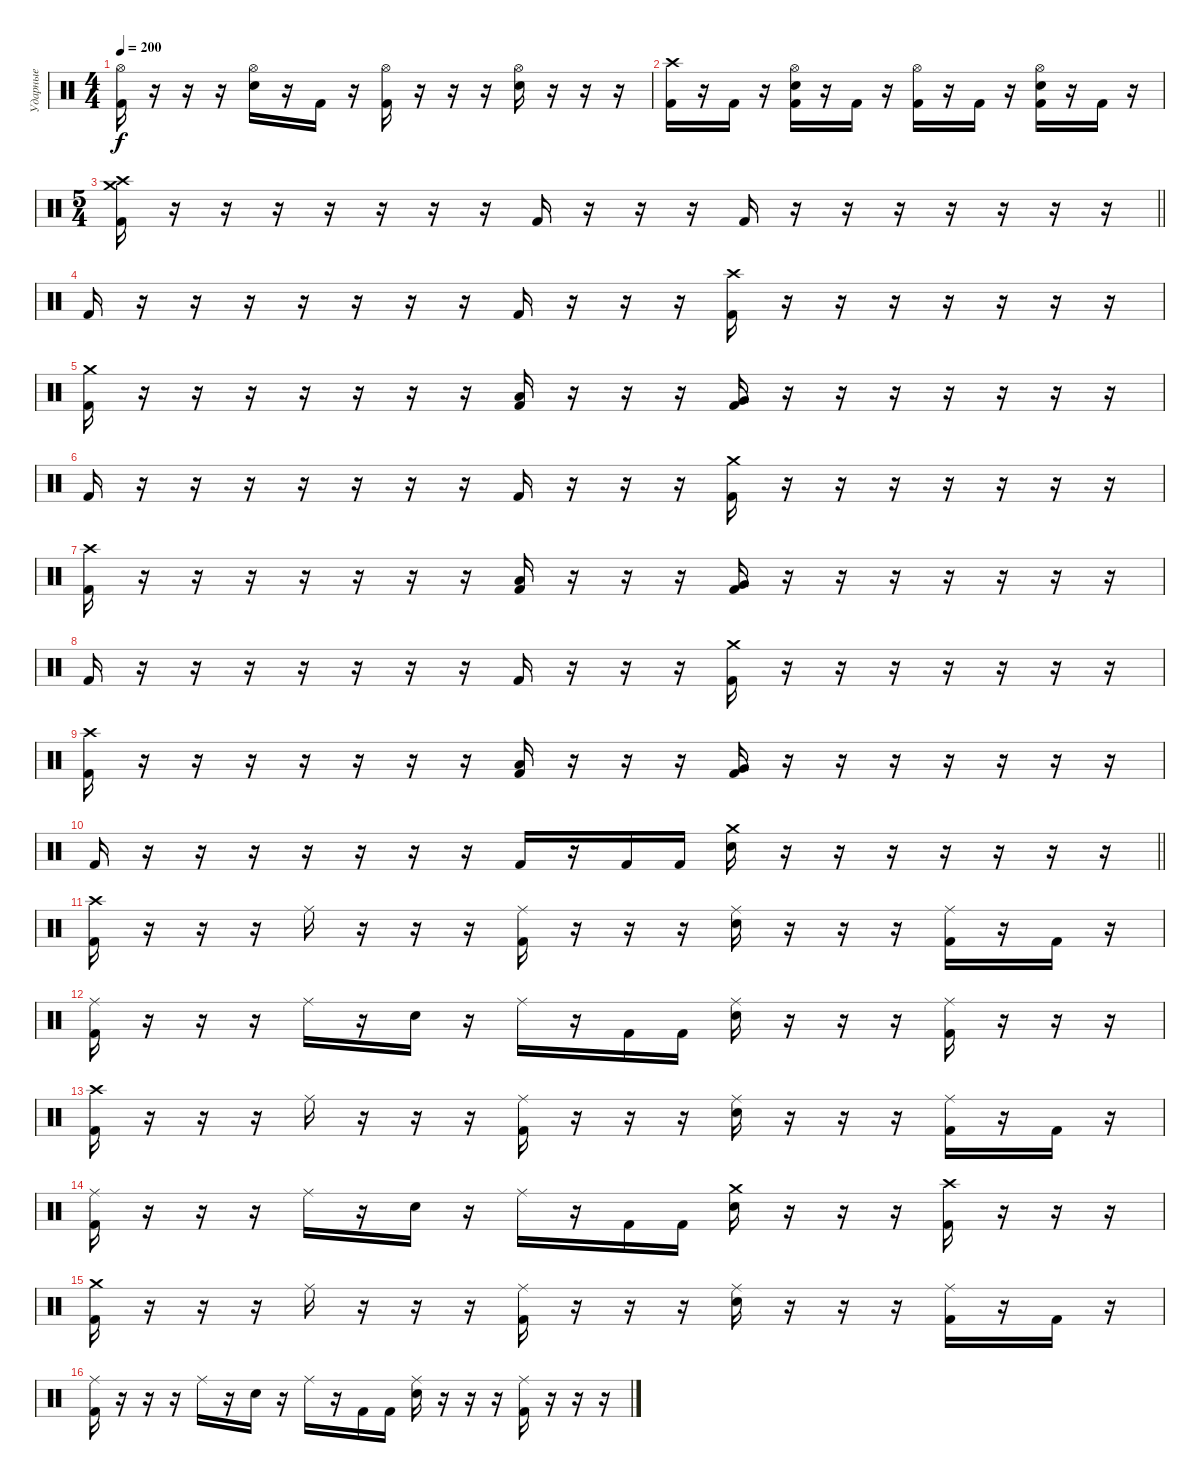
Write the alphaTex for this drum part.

\track ("Ударные" "Ударные") {instrument percussion}
\staff {score}
\articulation defaults
\ts (4 4)
\tempo 200
\clef neutral
\ks c
("Hi-Hat (open)" "Kick (hit) 2").16{dy f} r.16 r.16 r.16 ("Hi-Hat (open)" "Electric Snare (hit)").16 r.16 "Kick (hit) 2".16 r.16 ("Hi-Hat (open)" "Kick (hit) 2").16 r.16 r.16 r.16 ("Hi-Hat (open)" "Electric Snare (hit)").16 r.16 r.16 r.16 |
("Crash high (hit)" "Kick (hit) 2").16 r.16 "Kick (hit) 2".16 r.16 ("Hi-Hat (open)" "Electric Snare (hit)" "Kick (hit) 2").16 r.16 "Kick (hit) 2".16 r.16 ("Hi-Hat (open)" "Kick (hit) 2").16 r.16 "Kick (hit) 2".16 r.16 ("Hi-Hat (open)" "Electric Snare (hit)" "Kick (hit) 2").16 r.16 "Kick (hit) 2".16 r.16 |
\ts (5 4)
\barLineRight lightlight
("Crash medium (hit)" "Crash high (hit)" "Kick (hit) 2").16 r.16 r.16 r.16 r.16 r.16 r.16 r.16 "Kick (hit) 2".16 r.16 r.16 r.16 "Kick (hit) 2".16 r.16 r.16 r.16 r.16 r.16 r.16 r.16 |
"Kick (hit) 2".16 r.16 r.16 r.16 r.16 r.16 r.16 r.16 "Kick (hit) 2".16 r.16 r.16 r.16 ("Crash high (hit)" "Kick (hit) 2").16 r.16 r.16 r.16 r.16 r.16 r.16 r.16 |
("Crash medium (hit)" "Kick (hit) 2").16 r.16 r.16 r.16 r.16 r.16 r.16 r.16 ("Low Tom (hit)" "Kick (hit) 2").16 r.16 r.16 r.16 ("Very Low Tom (hit)" "Kick (hit) 2").16 r.16 r.16 r.16 r.16 r.16 r.16 r.16 |
"Kick (hit) 2".16 r.16 r.16 r.16 r.16 r.16 r.16 r.16 "Kick (hit) 2".16 r.16 r.16 r.16 ("Crash medium (hit)" "Kick (hit) 2").16 r.16 r.16 r.16 r.16 r.16 r.16 r.16 |
("Crash high (hit)" "Kick (hit) 2").16 r.16 r.16 r.16 r.16 r.16 r.16 r.16 ("Low Tom (hit)" "Kick (hit) 2").16 r.16 r.16 r.16 ("Very Low Tom (hit)" "Kick (hit) 2").16 r.16 r.16 r.16 r.16 r.16 r.16 r.16 |
"Kick (hit) 2".16 r.16 r.16 r.16 r.16 r.16 r.16 r.16 "Kick (hit) 2".16 r.16 r.16 r.16 ("Crash medium (hit)" "Kick (hit) 2").16 r.16 r.16 r.16 r.16 r.16 r.16 r.16 |
("Crash high (hit)" "Kick (hit) 2").16 r.16 r.16 r.16 r.16 r.16 r.16 r.16 ("Low Tom (hit)" "Kick (hit) 2").16 r.16 r.16 r.16 ("Very Low Tom (hit)" "Kick (hit) 2").16 r.16 r.16 r.16 r.16 r.16 r.16 r.16 |
\barLineRight lightlight "Kick (hit) 2".16
r.16 r.16 r.16 r.16 r.16 r.16 r.16 "Kick (hit) 2".16 r.16 "Kick (hit) 2".16 "Kick (hit) 2".16 ("Crash medium (hit)" "Electric Snare (hit)").16 r.16 r.16 r.16 r.16 r.16 r.16 r.16 |
\section ("" "")
("Crash high (hit)" "Kick (hit) 2").16 r.16 r.16 r.16 "Ride (middle)".16 r.16 r.16 r.16 ("Ride (middle)" "Kick (hit) 2").16 r.16 r.16 r.16 ("Ride (middle)" "Electric Snare (hit)").16 r.16 r.16 r.16 ("Ride (middle)" "Kick (hit) 2").16 r.16 "Kick (hit) 2".16 r.16 |
("Ride (middle)" "Kick (hit) 2").16 r.16 r.16 r.16 "Ride (middle)".16 r.16 "Electric Snare (hit)".16 r.16 "Ride (middle)".16 r.16 "Kick (hit) 2".16 "Kick (hit) 2".16 ("Ride (middle)" "Electric Snare (hit)").16 r.16 r.16 r.16 ("Ride (middle)" "Kick (hit) 2").16 r.16 r.16 r.16 |
("Crash high (hit)" "Kick (hit) 2").16 r.16 r.16 r.16 "Ride (middle)".16 r.16 r.16 r.16 ("Ride (middle)" "Kick (hit) 2").16 r.16 r.16 r.16 ("Ride (middle)" "Electric Snare (hit)").16 r.16 r.16 r.16 ("Ride (middle)" "Kick (hit) 2").16 r.16 "Kick (hit) 2".16 r.16 |
("Ride (middle)" "Kick (hit) 2").16 r.16 r.16 r.16 "Ride (middle)".16 r.16 "Electric Snare (hit)".16 r.16 "Ride (middle)".16 r.16 "Kick (hit) 2".16 "Kick (hit) 2".16 ("Crash medium (hit)" "Electric Snare (hit)").16 r.16 r.16 r.16 ("Crash high (hit)" "Kick (hit) 2").16 r.16 r.16 r.16 |
("Crash medium (hit)" "Kick (hit) 2").16 r.16 r.16 r.16 "Ride (middle)".16 r.16 r.16 r.16 ("Ride (middle)" "Kick (hit) 2").16 r.16 r.16 r.16 ("Ride (middle)" "Electric Snare (hit)").16 r.16 r.16 r.16 ("Ride (middle)" "Kick (hit) 2").16 r.16 "Kick (hit) 2".16 r.16 |
("Ride (middle)" "Kick (hit) 2").16 r.16 r.16 r.16 "Ride (middle)".16 r.16 "Electric Snare (hit)".16 r.16 "Ride (middle)".16 r.16 "Kick (hit) 2".16 "Kick (hit) 2".16 ("Ride (middle)" "Electric Snare (hit)").16 r.16 r.16 r.16 ("Ride (middle)" "Kick (hit) 2").16 r.16 r.16 r.16
